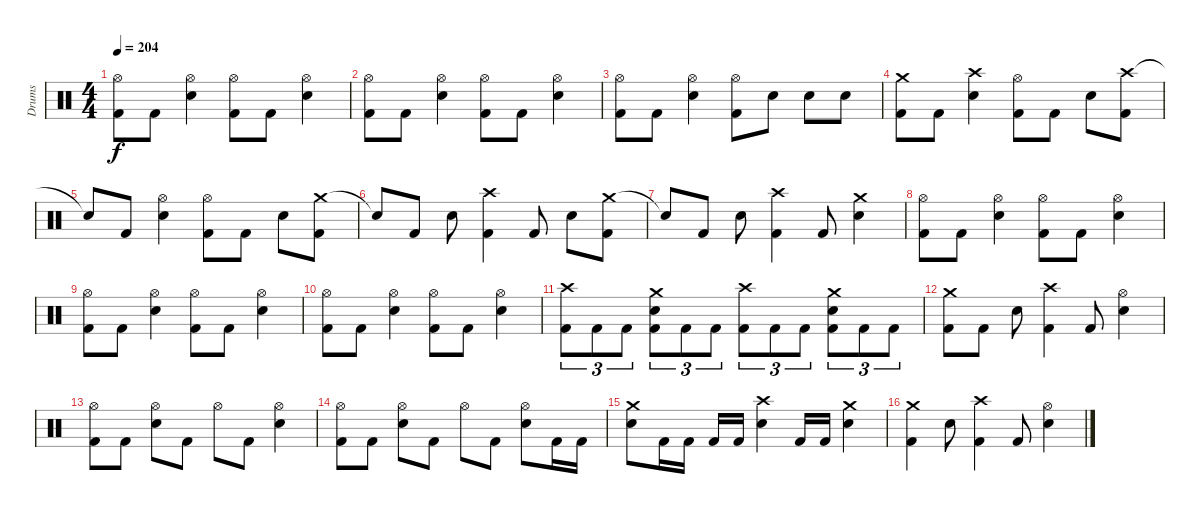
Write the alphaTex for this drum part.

\track ("Drums" "Drums") {instrument percussion}
\staff {score}
\articulation defaults
\ts (4 4)
\tempo 204
\clef neutral
\ks c
("Hi-Hat (open)" "Kick (hit) 2").8{dy f} "Kick (hit) 2".8 ("Hi-Hat (open)" "Electric Snare (hit)").4 ("Hi-Hat (open)" "Kick (hit) 2").8 "Kick (hit) 2".8 ("Hi-Hat (open)" "Electric Snare (hit)").4 |
("Hi-Hat (open)" "Kick (hit) 2").8 "Kick (hit) 2".8 ("Hi-Hat (open)" "Electric Snare (hit)").4 ("Hi-Hat (open)" "Kick (hit) 2").8 "Kick (hit) 2".8 ("Hi-Hat (open)" "Electric Snare (hit)").4 |
("Hi-Hat (open)" "Kick (hit) 2").8 "Kick (hit) 2".8 ("Hi-Hat (open)" "Electric Snare (hit)").4 ("Hi-Hat (open)" "Kick (hit) 2").8 "Electric Snare (hit)".8 "Electric Snare (hit)".8 "Electric Snare (hit)".8 |
("Crash medium (hit)" "Kick (hit) 2").8 "Kick (hit) 2".8 ("Crash high (hit)" "Electric Snare (hit)").4 ("Hi-Hat (open)" "Kick (hit) 2").8 "Kick (hit) 2".8 "Electric Snare (hit)".8 ("Crash high (hit)" "Kick (hit) 2").8 |
"Snare (hit)"{t}.8 "Kick (hit) 2".8 ("Hi-Hat (open)" "Electric Snare (hit)").4 ("Hi-Hat (open)" "Kick (hit) 2").8 "Kick (hit) 2".8 "Electric Snare (hit)".8 ("Crash medium (hit)" "Kick (hit) 2").8 |
"Snare (hit)"{t}.8 "Kick (hit) 2".8 "Electric Snare (hit)".8 ("Crash high (hit)" "Kick (hit) 2").4 "Kick (hit) 2".8 "Electric Snare (hit)".8 ("Crash medium (hit)" "Kick (hit) 2").8 |
"Snare (hit)"{t}.8 "Kick (hit) 2".8 "Electric Snare (hit)".8 ("Crash high (hit)" "Kick (hit) 2").4 "Kick (hit) 2".8 ("Crash medium (hit)" "Electric Snare (hit)").4 |
("Hi-Hat (open)" "Kick (hit) 2").8 "Kick (hit) 2".8 ("Hi-Hat (open)" "Electric Snare (hit)").4 ("Hi-Hat (open)" "Kick (hit) 2").8 "Kick (hit) 2".8 ("Hi-Hat (open)" "Electric Snare (hit)").4 |
("Hi-Hat (open)" "Kick (hit) 2").8 "Kick (hit) 2".8 ("Hi-Hat (open)" "Electric Snare (hit)").4 ("Hi-Hat (open)" "Kick (hit) 2").8 "Kick (hit) 2".8 ("Hi-Hat (open)" "Electric Snare (hit)").4 |
("Hi-Hat (open)" "Kick (hit) 2").8 "Kick (hit) 2".8 ("Hi-Hat (open)" "Electric Snare (hit)").4 ("Hi-Hat (open)" "Kick (hit) 2").8 "Kick (hit) 2".8 ("Hi-Hat (open)" "Electric Snare (hit)").4 |
("Crash high (hit)" "Kick (hit) 2").8{tu (3 2)} "Kick (hit) 2".8{tu (3 2)} "Kick (hit) 2".8{tu (3 2)} ("Crash medium (hit)" "Electric Snare (hit)" "Kick (hit) 2").8{tu (3 2)} "Kick (hit) 2".8{tu (3 2)} "Kick (hit) 2".8{tu (3 2)} ("Crash high (hit)" "Kick (hit) 2").8{tu (3 2)} "Kick (hit) 2".8{tu (3 2)} "Kick (hit) 2".8{tu (3 2)} ("Crash medium (hit)" "Electric Snare (hit)" "Kick (hit) 2").8{tu (3 2)} "Kick (hit) 2".8{tu (3 2)} "Kick (hit) 2".8{tu (3 2)} |
("Crash medium (hit)" "Kick (hit) 2").8 "Kick (hit) 2".8 "Electric Snare (hit)".8 ("Crash high (hit)" "Kick (hit) 2").4 "Kick (hit) 2".8 ("Hi-Hat (open)" "Electric Snare (hit)").4 |
("Hi-Hat (open)" "Kick (hit) 2").8 "Kick (hit) 2".8 ("Hi-Hat (open)" "Electric Snare (hit)").8 "Kick (hit) 2".8 "Hi-Hat (open)".8 "Kick (hit) 2".8 ("Hi-Hat (open)" "Electric Snare (hit)").4 |
("Hi-Hat (open)" "Kick (hit) 2").8 "Kick (hit) 2".8 ("Hi-Hat (open)" "Electric Snare (hit)").8 "Kick (hit) 2".8 "Hi-Hat (open)".8 "Kick (hit) 2".8 ("Hi-Hat (open)" "Electric Snare (hit)").8 "Kick (hit) 2".16 "Kick (hit) 2".16 |
("Crash medium (hit)" "Electric Snare (hit)").8 "Kick (hit) 2".16 "Kick (hit) 2".16 "Kick (hit) 2".16 "Kick (hit) 2".16 ("Crash high (hit)" "Electric Snare (hit)").4 "Kick (hit) 2".16 "Kick (hit) 2".16 ("Crash medium (hit)" "Electric Snare (hit)").4 |
("Crash medium (hit)" "Kick (hit) 2").4 "Electric Snare (hit)".8 ("Crash high (hit)" "Kick (hit) 2").4 "Kick (hit) 2".8 ("Hi-Hat (open)" "Electric Snare (hit)").4
